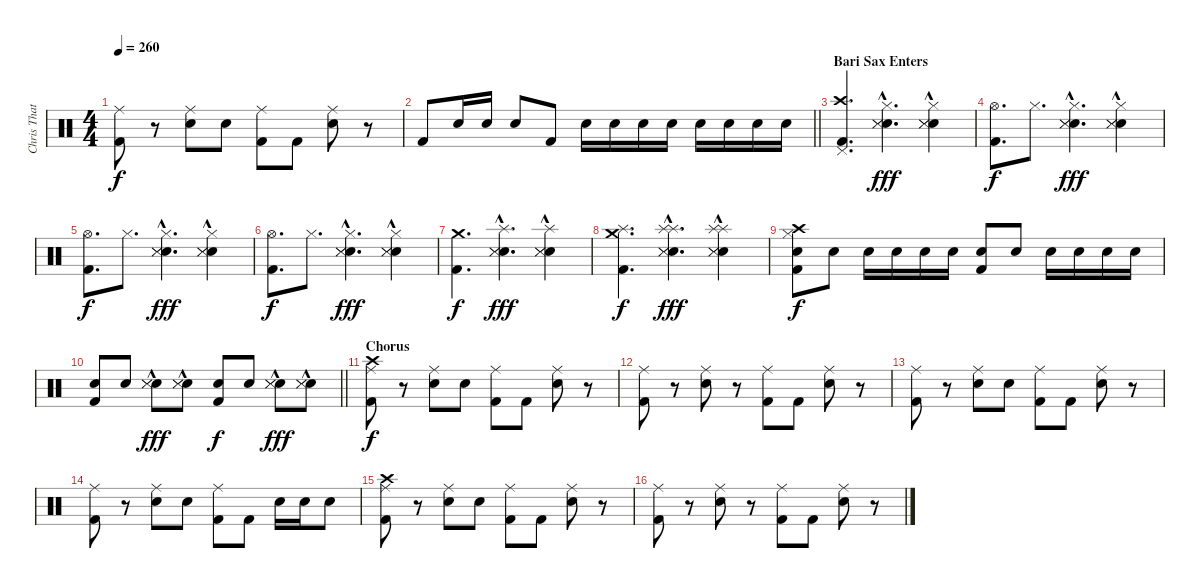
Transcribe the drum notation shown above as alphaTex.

\track ("Chris Thatcher    - Drums" "Chris That") {instrument percussion}
\staff {score}
\articulation defaults
\ts (4 4)
\tempo 260
\clef neutral
\ks c
("Ride (middle)" "Kick (hit) 2").8{dy f} r.8 ("Ride (middle)" "Electric Snare (hit)").8 "Electric Snare (hit)".8 ("Ride (middle)" "Kick (hit) 2").8 "Kick (hit) 2".8 ("Ride (middle)" "Electric Snare (hit)").8 r.8 |
\barLineRight lightlight "Kick (hit) 2".8 "Electric Snare (hit)".16 "Electric Snare (hit)".16 "Electric Snare (hit)".8 "Kick (hit) 2".8 "Electric Snare (hit)".16 "Electric Snare (hit)".16 "Electric Snare (hit)".16 "Electric Snare (hit)".16 "Electric Snare (hit)".16 "Electric Snare (hit)".16 "Electric Snare (hit)".16 "Electric Snare (hit)".16
|
\section ("" "Bari Sax Enters")
("Crash high (hit)" "Pedal Hi-Hat (hit)" "Kick (hit) 2").4{d} ("Hi-Hat (closed)" "Electric Snare (hit)" "Snare (side stick) 3"{hac} "Snare (side stick) 3"{hac}).4{d dy fff} ("Hi-Hat (closed)" "Electric Snare (hit)" "Snare (side stick) 3"{hac} "Snare (side stick) 3"{hac}).4 |
("Hi-Hat (open)" "Kick (hit) 2").8{d dy f} "Hi-Hat (closed)".8{d} ("Hi-Hat (closed)" "Electric Snare (hit)" "Snare (side stick) 3"{hac} "Snare (side stick) 3"{hac}).4{d dy fff} ("Hi-Hat (closed)" "Electric Snare (hit)" "Snare (side stick) 3"{hac} "Snare (side stick) 3"{hac}).4 |
("Hi-Hat (open)" "Kick (hit) 2").8{d dy f} "Hi-Hat (closed)".8{d} ("Hi-Hat (closed)" "Electric Snare (hit)" "Snare (side stick) 3"{hac} "Snare (side stick) 3"{hac}).4{d dy fff} ("Hi-Hat (closed)" "Electric Snare (hit)" "Snare (side stick) 3"{hac} "Snare (side stick) 3"{hac}).4 |
("Hi-Hat (open)" "Kick (hit) 2").8{d dy f} "Hi-Hat (closed)".8{d} ("Hi-Hat (closed)" "Electric Snare (hit)" "Snare (side stick) 3"{hac} "Snare (side stick) 3"{hac}).4{d dy fff} ("Hi-Hat (closed)" "Electric Snare (hit)" "Snare (side stick) 3"{hac} "Snare (side stick) 3"{hac}).4 |
("Crash medium (hit)" "Kick (hit) 2").4{d dy f} ("Splash (hit)" "Electric Snare (hit)" "Snare (side stick) 3"{hac} "Snare (side stick) 3"{hac}).4{d dy fff} ("Splash (hit)" "Electric Snare (hit)" "Snare (side stick) 3"{hac} "Snare (side stick) 3"{hac}).4 |
("Splash (hit)" "Crash medium (hit)" "Kick (hit) 2").4{d dy f} ("Splash (hit)" "Splash (hit)" "Electric Snare (hit)" "Snare (side stick) 3"{hac} "Snare (side stick) 3"{hac}).4{d dy fff} ("Splash (hit)" "Splash (hit)" "Electric Snare (hit)" "Snare (side stick) 3"{hac} "Snare (side stick) 3"{hac}).4 |
("Crash high (hit)" "Hi-Hat (closed)" "Kick (hit) 2" "Electric Snare (hit)").8{dy f} "Electric Snare (hit)".8 "Electric Snare (hit)".16 "Electric Snare (hit)".16 "Electric Snare (hit)".16 "Electric Snare (hit)".16 ("Kick (hit) 2" "Electric Snare (hit)").8 "Electric Snare (hit)".8 "Electric Snare (hit)".16 "Electric Snare (hit)".16 "Electric Snare (hit)".16 "Electric Snare (hit)".16 |
\barLineRight lightlight
("Kick (hit) 2" "Electric Snare (hit)").8 "Electric Snare (hit)".8 ("Electric Snare (hit)" "Snare (side stick) 3"{hac} "Snare (side stick) 3"{hac}).8{dy fff} ("Electric Snare (hit)" "Snare (side stick) 3"{hac} "Snare (side stick) 3"{hac}).8 ("Kick (hit) 2" "Electric Snare (hit)").8{dy f} "Electric Snare (hit)".8 ("Electric Snare (hit)" "Snare (side stick) 3"{hac} "Snare (side stick) 3"{hac}).8{dy fff} ("Electric Snare (hit)" "Snare (side stick) 3"{hac} "Snare (side stick) 3"{hac}).8 |
\section ("" "Chorus")
("Crash high (hit)" "Ride (middle)" "Kick (hit) 2").8{dy f} r.8 ("Ride (middle)" "Electric Snare (hit)").8 "Electric Snare (hit)".8 ("Ride (middle)" "Kick (hit) 2").8 "Kick (hit) 2".8 ("Ride (middle)" "Electric Snare (hit)").8 r.8 |
("Ride (middle)" "Kick (hit) 2").8 r.8 ("Ride (middle)" "Electric Snare (hit)").8 r.8 ("Ride (middle)" "Kick (hit) 2").8 "Kick (hit) 2".8 ("Ride (middle)" "Electric Snare (hit)").8 r.8 |
("Ride (middle)" "Kick (hit) 2").8 r.8 ("Ride (middle)" "Electric Snare (hit)").8 "Electric Snare (hit)".8 ("Ride (middle)" "Kick (hit) 2").8 "Kick (hit) 2".8 ("Ride (middle)" "Electric Snare (hit)").8 r.8 |
("Ride (middle)" "Kick (hit) 2").8 r.8 ("Ride (middle)" "Electric Snare (hit)").8 "Electric Snare (hit)".8 ("Ride (middle)" "Kick (hit) 2").8 "Kick (hit) 2".8 "Electric Snare (hit)".16 "Electric Snare (hit)".16 "Electric Snare (hit)".8 |
("Crash high (hit)" "Ride (middle)" "Kick (hit) 2").8 r.8 ("Ride (middle)" "Electric Snare (hit)").8 "Electric Snare (hit)".8 ("Ride (middle)" "Kick (hit) 2").8 "Kick (hit) 2".8 ("Ride (middle)" "Electric Snare (hit)").8 r.8 |
("Ride (middle)" "Kick (hit) 2").8 r.8 ("Ride (middle)" "Electric Snare (hit)").8 r.8 ("Ride (middle)" "Kick (hit) 2").8 "Kick (hit) 2".8 ("Ride (middle)" "Electric Snare (hit)").8 r.8
